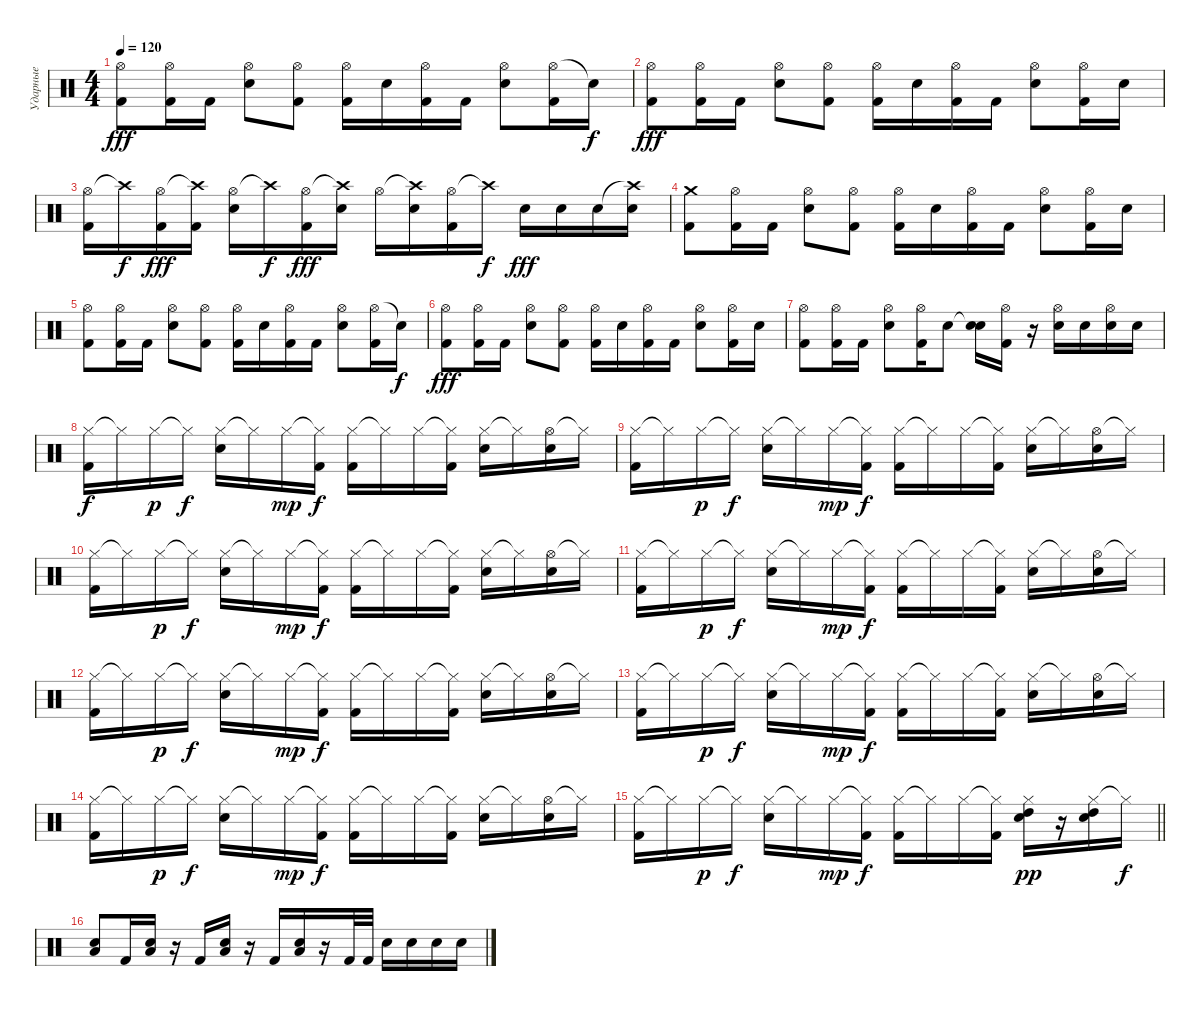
\track ("Ударные" "Ударные") {instrument percussion}
\staff {score}
\articulation defaults
\ts (4 4)
\tempo 120
\clef neutral
\ks c
("Hi-Hat (open)" "Kick (hit) 2").8{dy fff} ("Hi-Hat (open)" "Kick (hit) 2").16 "Kick (hit) 2".16 ("Hi-Hat (open)" "Electric Snare (hit)").8 ("Hi-Hat (open)" "Kick (hit) 2").8 ("Hi-Hat (open)" "Kick (hit) 2").16 "Electric Snare (hit)".16 ("Hi-Hat (open)" "Kick (hit) 2").16 "Kick (hit) 2".16 ("Hi-Hat (open)" "Electric Snare (hit)").8 ("Hi-Hat (open)" "Kick (hit) 2").16 "Snare (hit)"{t}.16{dy f} |
("Hi-Hat (open)" "Kick (hit) 2").8{dy fff} ("Hi-Hat (open)" "Kick (hit) 2").16 "Kick (hit) 2".16 ("Hi-Hat (open)" "Electric Snare (hit)").8 ("Hi-Hat (open)" "Kick (hit) 2").8 ("Hi-Hat (open)" "Kick (hit) 2").16 "Electric Snare (hit)".16 ("Hi-Hat (open)" "Kick (hit) 2").16 "Kick (hit) 2".16 ("Hi-Hat (open)" "Electric Snare (hit)").8 ("Hi-Hat (open)" "Kick (hit) 2").16 "Electric Snare (hit)".16 |
("Hi-Hat (open)" "Kick (hit) 2").16 "Crash high (hit)"{t}.16{dy f} ("Hi-Hat (open)" "Kick (hit) 2").16{dy fff} ("Crash high (hit)"{t} "Kick (hit) 2").16 ("Hi-Hat (open)" "Electric Snare (hit)").16 "Crash high (hit)"{t}.16{dy f} ("Hi-Hat (open)" "Kick (hit) 2").16{dy fff} ("Crash high (hit)"{t} "Electric Snare (hit)").16 "Hi-Hat (open)".16 ("Crash high (hit)"{t} "Electric Snare (hit)").16 ("Hi-Hat (open)" "Kick (hit) 2").16 "Crash high (hit)"{t}.16{dy f} "Electric Snare (hit)".16{dy fff} "Electric Snare (hit)".16 "Electric Snare (hit)".16 ("Crash high (hit)"{t} "Electric Snare (hit)").16 |
("Crash medium (hit)" "Kick (hit) 2").8 ("Hi-Hat (open)" "Kick (hit) 2").16 "Kick (hit) 2".16 ("Hi-Hat (open)" "Electric Snare (hit)").8 ("Hi-Hat (open)" "Kick (hit) 2").8 ("Hi-Hat (open)" "Kick (hit) 2").16 "Electric Snare (hit)".16 ("Hi-Hat (open)" "Kick (hit) 2").16 "Kick (hit) 2".16 ("Hi-Hat (open)" "Electric Snare (hit)").8 ("Hi-Hat (open)" "Kick (hit) 2").16 "Electric Snare (hit)".16 |
("Hi-Hat (open)" "Kick (hit) 2").8 ("Hi-Hat (open)" "Kick (hit) 2").16 "Kick (hit) 2".16 ("Hi-Hat (open)" "Electric Snare (hit)").8 ("Hi-Hat (open)" "Kick (hit) 2").8 ("Hi-Hat (open)" "Kick (hit) 2").16 "Electric Snare (hit)".16 ("Hi-Hat (open)" "Kick (hit) 2").16 "Kick (hit) 2".16 ("Hi-Hat (open)" "Electric Snare (hit)").8 ("Hi-Hat (open)" "Kick (hit) 2").16 "Snare (hit)"{t}.16{dy f} |
("Hi-Hat (open)" "Kick (hit) 2").8{dy fff} ("Hi-Hat (open)" "Kick (hit) 2").16 "Kick (hit) 2".16 ("Hi-Hat (open)" "Electric Snare (hit)").8 ("Hi-Hat (open)" "Kick (hit) 2").8 ("Hi-Hat (open)" "Kick (hit) 2").16 "Electric Snare (hit)".16 ("Hi-Hat (open)" "Kick (hit) 2").16 "Kick (hit) 2".16 ("Hi-Hat (open)" "Electric Snare (hit)").8 ("Hi-Hat (open)" "Kick (hit) 2").16 "Electric Snare (hit)".16 |
("Hi-Hat (open)" "Kick (hit) 2").8 ("Hi-Hat (open)" "Kick (hit) 2").16 "Kick (hit) 2".16 ("Hi-Hat (open)" "Electric Snare (hit)").8 ("Hi-Hat (open)" "Kick (hit) 2").16 "Electric Snare (hit)".8 ("Snare (hit)"{t} "Electric Snare (hit)").16 ("Hi-Hat (open)" "Kick (hit) 2").16 r.16 ("Hi-Hat (open)" "Electric Snare (hit)").16 "Electric Snare (hit)".16 ("Hi-Hat (open)" "Electric Snare (hit)").16 "Electric Snare (hit)".16 |
("Hi-Hat (closed)" "Kick (hit) 2").16{dy f} "Hi-Hat (closed)"{t}.16 "Hi-Hat (closed)".16{dy p} "Hi-Hat (closed)"{t}.16{dy f} ("Hi-Hat (closed)" "Electric Snare (hit)").16 "Hi-Hat (closed)"{t}.16 "Hi-Hat (closed)".16{dy mp} ("Hi-Hat (closed)"{t} "Kick (hit) 2").16{dy f} ("Hi-Hat (closed)" "Kick (hit) 2").16 "Hi-Hat (closed)"{t}.16 "Hi-Hat (closed)".16 ("Hi-Hat (closed)"{t} "Kick (hit) 2").16 ("Hi-Hat (closed)" "Electric Snare (hit)").16 "Hi-Hat (closed)"{t}.16 ("Hi-Hat (open)" "Electric Snare (hit)").16 "Hi-Hat (closed)"{t}.16 |
("Hi-Hat (closed)" "Kick (hit) 2").16 "Hi-Hat (closed)"{t}.16 "Hi-Hat (closed)".16{dy p} "Hi-Hat (closed)"{t}.16{dy f} ("Hi-Hat (closed)" "Electric Snare (hit)").16 "Hi-Hat (closed)"{t}.16 "Hi-Hat (closed)".16{dy mp} ("Hi-Hat (closed)"{t} "Kick (hit) 2").16{dy f} ("Hi-Hat (closed)" "Kick (hit) 2").16 "Hi-Hat (closed)"{t}.16 "Hi-Hat (closed)".16 ("Hi-Hat (closed)"{t} "Kick (hit) 2").16 ("Hi-Hat (closed)" "Electric Snare (hit)").16 "Hi-Hat (closed)"{t}.16 ("Hi-Hat (open)" "Electric Snare (hit)").16 "Hi-Hat (closed)"{t}.16 |
("Hi-Hat (closed)" "Kick (hit) 2").16 "Hi-Hat (closed)"{t}.16 "Hi-Hat (closed)".16{dy p} "Hi-Hat (closed)"{t}.16{dy f} ("Hi-Hat (closed)" "Electric Snare (hit)").16 "Hi-Hat (closed)"{t}.16 "Hi-Hat (closed)".16{dy mp} ("Hi-Hat (closed)"{t} "Kick (hit) 2").16{dy f} ("Hi-Hat (closed)" "Kick (hit) 2").16 "Hi-Hat (closed)"{t}.16 "Hi-Hat (closed)".16 ("Hi-Hat (closed)"{t} "Kick (hit) 2").16 ("Hi-Hat (closed)" "Electric Snare (hit)").16 "Hi-Hat (closed)"{t}.16 ("Hi-Hat (open)" "Electric Snare (hit)").16 "Hi-Hat (closed)"{t}.16 |
("Hi-Hat (closed)" "Kick (hit) 2").16 "Hi-Hat (closed)"{t}.16 "Hi-Hat (closed)".16{dy p} "Hi-Hat (closed)"{t}.16{dy f} ("Hi-Hat (closed)" "Electric Snare (hit)").16 "Hi-Hat (closed)"{t}.16 "Hi-Hat (closed)".16{dy mp} ("Hi-Hat (closed)"{t} "Kick (hit) 2").16{dy f} ("Hi-Hat (closed)" "Kick (hit) 2").16 "Hi-Hat (closed)"{t}.16 "Hi-Hat (closed)".16 ("Hi-Hat (closed)"{t} "Kick (hit) 2").16 ("Hi-Hat (closed)" "Electric Snare (hit)").16 "Hi-Hat (closed)"{t}.16 ("Hi-Hat (open)" "Electric Snare (hit)").16 "Hi-Hat (closed)"{t}.16 |
("Hi-Hat (closed)" "Kick (hit) 2").16 "Hi-Hat (closed)"{t}.16 "Hi-Hat (closed)".16{dy p} "Hi-Hat (closed)"{t}.16{dy f} ("Hi-Hat (closed)" "Electric Snare (hit)").16 "Hi-Hat (closed)"{t}.16 "Hi-Hat (closed)".16{dy mp} ("Hi-Hat (closed)"{t} "Kick (hit) 2").16{dy f} ("Hi-Hat (closed)" "Kick (hit) 2").16 "Hi-Hat (closed)"{t}.16 "Hi-Hat (closed)".16 ("Hi-Hat (closed)"{t} "Kick (hit) 2").16 ("Hi-Hat (closed)" "Electric Snare (hit)").16 "Hi-Hat (closed)"{t}.16 ("Hi-Hat (open)" "Electric Snare (hit)").16 "Hi-Hat (closed)"{t}.16 |
("Hi-Hat (closed)" "Kick (hit) 2").16 "Hi-Hat (closed)"{t}.16 "Hi-Hat (closed)".16{dy p} "Hi-Hat (closed)"{t}.16{dy f} ("Hi-Hat (closed)" "Electric Snare (hit)").16 "Hi-Hat (closed)"{t}.16 "Hi-Hat (closed)".16{dy mp} ("Hi-Hat (closed)"{t} "Kick (hit) 2").16{dy f} ("Hi-Hat (closed)" "Kick (hit) 2").16 "Hi-Hat (closed)"{t}.16 "Hi-Hat (closed)".16 ("Hi-Hat (closed)"{t} "Kick (hit) 2").16 ("Hi-Hat (closed)" "Electric Snare (hit)").16 "Hi-Hat (closed)"{t}.16 ("Hi-Hat (open)" "Electric Snare (hit)").16 "Hi-Hat (closed)"{t}.16 |
("Hi-Hat (closed)" "Kick (hit) 2").16 "Hi-Hat (closed)"{t}.16 "Hi-Hat (closed)".16{dy p} "Hi-Hat (closed)"{t}.16{dy f} ("Hi-Hat (closed)" "Electric Snare (hit)").16 "Hi-Hat (closed)"{t}.16 "Hi-Hat (closed)".16{dy mp} ("Hi-Hat (closed)"{t} "Kick (hit) 2").16{dy f} ("Hi-Hat (closed)" "Kick (hit) 2").16 "Hi-Hat (closed)"{t}.16 "Hi-Hat (closed)".16 ("Hi-Hat (closed)"{t} "Kick (hit) 2").16 ("Hi-Hat (closed)" "Electric Snare (hit)").16 "Hi-Hat (closed)"{t}.16 ("Hi-Hat (open)" "Electric Snare (hit)").16 "Hi-Hat (closed)"{t}.16 |
\barLineRight lightlight
("Hi-Hat (closed)" "Kick (hit) 2").16 "Hi-Hat (closed)"{t}.16 "Hi-Hat (closed)".16{dy p} "Hi-Hat (closed)"{t}.16{dy f} ("Hi-Hat (closed)" "Electric Snare (hit)").16 "Hi-Hat (closed)"{t}.16 "Hi-Hat (closed)".16{dy mp} ("Hi-Hat (closed)"{t} "Kick (hit) 2").16{dy f} ("Hi-Hat (closed)" "Kick (hit) 2").16 "Hi-Hat (closed)"{t}.16 "Hi-Hat (closed)".16 ("Hi-Hat (closed)"{t} "Kick (hit) 2").16 ("Hi-Hat (closed)" "High Tom (hit)" "Electric Snare (hit)").16{dy pp} r.16 ("Hi-Hat (closed)" "High Tom (hit)" "Electric Snare (hit)").16 "Hi-Hat (closed)"{t}.16{dy f} |
("Low Tom (hit)" "Electric Snare (hit)").8 "Kick (hit) 2".16 ("Low Tom (hit)" "Electric Snare (hit)").16 r.16 "Kick (hit) 2".16 ("Low Tom (hit)" "Electric Snare (hit)").16 r.16 "Kick (hit) 2".16 ("Low Tom (hit)" "Electric Snare (hit)").16 r.16 "Kick (hit) 2".32 "Kick (hit) 2".32 "Electric Snare (hit)".16 "Electric Snare (hit)".16 "Electric Snare (hit)".16 "Electric Snare (hit)".16
